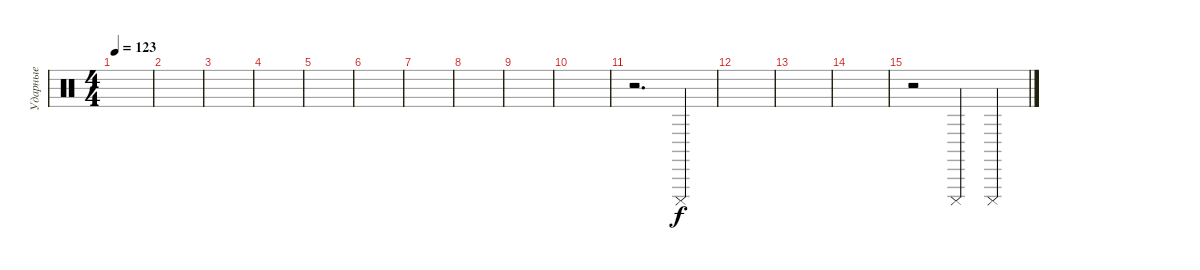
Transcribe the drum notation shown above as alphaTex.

\track ("Ударные" "Ударные") {instrument percussion}
\staff {score}
\articulation defaults
\ts (4 4)
\tempo 123
\clef neutral
\ks c
|
|
|
|
|
|
|
|
|
|
r.2{d} "Cuica (mute)".4 |
|
|
|
r.2 "Cuica (mute)".4 "Cuica (mute)".4
